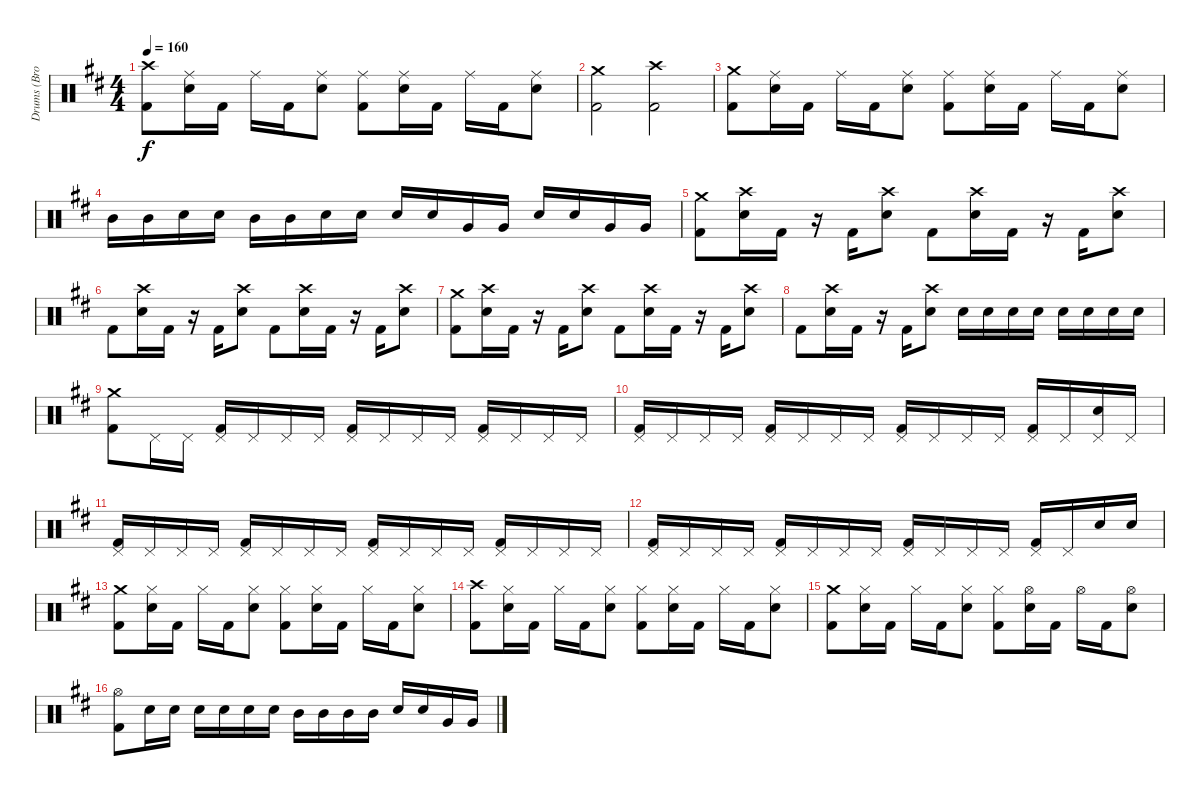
\track ("Drums (Brooks Wackerman)" "Drums (Bro") {instrument percussion}
\staff {score}
\articulation defaults
\ts (4 4)
\tempo 160
\clef neutral
\ks d
("Crash high (hit)" "Kick (hit) 2").8{dy f} ("Ride (middle)" "Snare (hit) 2").16 "Kick (hit) 2".16 "Ride (middle)".16 "Kick (hit) 2".16 ("Ride (middle)" "Snare (hit) 2").8 ("Ride (middle)" "Kick (hit) 2").8 ("Ride (middle)" "Snare (hit) 2").16 "Kick (hit) 2".16 "Ride (middle)".16 "Kick (hit) 2".16 ("Ride (middle)" "Snare (hit) 2").8 |
("Crash medium (hit)" "Kick (hit) 2").2 ("Crash high (hit)" "Kick (hit) 2").2 |
("Crash medium (hit)" "Kick (hit) 2").8 ("Ride (middle)" "Snare (hit) 2").16 "Kick (hit) 2".16 "Ride (middle)".16 "Kick (hit) 2".16 ("Ride (middle)" "Snare (hit) 2").8 ("Ride (middle)" "Kick (hit) 2").8 ("Ride (middle)" "Snare (hit) 2").16 "Kick (hit) 2".16 "Ride (middle)".16 "Kick (hit) 2".16 ("Ride (middle)" "Snare (hit) 2").8 |
"Mid Tom (hit)".16 "Mid Tom (hit)".16 "Snare (hit) 2".16 "Snare (hit) 2".16 "Mid Tom (hit)".16 "Mid Tom (hit)".16 "Snare (hit) 2".16 "Snare (hit) 2".16 "Snare (hit) 2".16 "Snare (hit) 2".16 "Very Low Tom (hit)".16 "Very Low Tom (hit)".16 "Snare (hit) 2".16 "Snare (hit) 2".16 "Very Low Tom (hit)".16 "Very Low Tom (hit)".16 |
("Crash medium (hit)" "Kick (hit) 2").8 ("Crash high (hit)" "Snare (hit) 2").16 "Kick (hit) 2".16 r.16 "Kick (hit) 2".16 ("Crash high (hit)" "Snare (hit) 2").8 "Kick (hit) 2".8 ("Crash high (hit)" "Snare (hit) 2").16 "Kick (hit) 2".16 r.16 "Kick (hit) 2".16 ("Crash high (hit)" "Snare (hit) 2").8 |
"Kick (hit) 2".8 ("Crash high (hit)" "Snare (hit) 2").16 "Kick (hit) 2".16 r.16 "Kick (hit) 2".16 ("Crash high (hit)" "Snare (hit) 2").8 "Kick (hit) 2".8 ("Crash high (hit)" "Snare (hit) 2").16 "Kick (hit) 2".16 r.16 "Kick (hit) 2".16 ("Crash high (hit)" "Snare (hit) 2").8 |
("Crash medium (hit)" "Kick (hit) 2").8 ("Crash high (hit)" "Snare (hit) 2").16 "Kick (hit) 2".16 r.16 "Kick (hit) 2".16 ("Crash high (hit)" "Snare (hit) 2").8 "Kick (hit) 2".8 ("Crash high (hit)" "Snare (hit) 2").16 "Kick (hit) 2".16 r.16 "Kick (hit) 2".16 ("Crash high (hit)" "Snare (hit) 2").8 |
"Kick (hit) 2".8 ("Crash high (hit)" "Snare (hit) 2").16 "Kick (hit) 2".16 r.16 "Kick (hit) 2".16 ("Crash high (hit)" "Snare (hit) 2").8 "Snare (hit) 2".16 "Snare (hit) 2".16 "Snare (hit) 2".16 "Snare (hit) 2".16 "Snare (hit) 2".16 "Snare (hit) 2".16 "Snare (hit) 2".16 "Snare (hit) 2".16 |
("Crash medium (hit)" "Kick (hit) 2").8 "Pedal Hi-Hat (hit)".16 "Pedal Hi-Hat (hit)".16 ("Pedal Hi-Hat (hit)" "Kick (hit) 2").16 "Pedal Hi-Hat (hit)".16 "Pedal Hi-Hat (hit)".16 "Pedal Hi-Hat (hit)".16 ("Pedal Hi-Hat (hit)" "Kick (hit) 2").16 "Pedal Hi-Hat (hit)".16 "Pedal Hi-Hat (hit)".16 "Pedal Hi-Hat (hit)".16 ("Pedal Hi-Hat (hit)" "Kick (hit) 2").16 "Pedal Hi-Hat (hit)".16 "Pedal Hi-Hat (hit)".16 "Pedal Hi-Hat (hit)".16 |
("Pedal Hi-Hat (hit)" "Kick (hit) 2").16 "Pedal Hi-Hat (hit)".16 "Pedal Hi-Hat (hit)".16 "Pedal Hi-Hat (hit)".16 ("Pedal Hi-Hat (hit)" "Kick (hit) 2").16 "Pedal Hi-Hat (hit)".16 "Pedal Hi-Hat (hit)".16 "Pedal Hi-Hat (hit)".16 ("Pedal Hi-Hat (hit)" "Kick (hit) 2").16 "Pedal Hi-Hat (hit)".16 "Pedal Hi-Hat (hit)".16 "Pedal Hi-Hat (hit)".16 ("Pedal Hi-Hat (hit)" "Kick (hit) 2").16 "Pedal Hi-Hat (hit)".16 ("Pedal Hi-Hat (hit)" "Snare (hit) 2").16 "Pedal Hi-Hat (hit)".16 |
("Pedal Hi-Hat (hit)" "Kick (hit) 2").16 "Pedal Hi-Hat (hit)".16 "Pedal Hi-Hat (hit)".16 "Pedal Hi-Hat (hit)".16 ("Pedal Hi-Hat (hit)" "Kick (hit) 2").16 "Pedal Hi-Hat (hit)".16 "Pedal Hi-Hat (hit)".16 "Pedal Hi-Hat (hit)".16 ("Pedal Hi-Hat (hit)" "Kick (hit) 2").16 "Pedal Hi-Hat (hit)".16 "Pedal Hi-Hat (hit)".16 "Pedal Hi-Hat (hit)".16 ("Pedal Hi-Hat (hit)" "Kick (hit) 2").16 "Pedal Hi-Hat (hit)".16 "Pedal Hi-Hat (hit)".16 "Pedal Hi-Hat (hit)".16 |
("Pedal Hi-Hat (hit)" "Kick (hit) 2").16 "Pedal Hi-Hat (hit)".16 "Pedal Hi-Hat (hit)".16 "Pedal Hi-Hat (hit)".16 ("Pedal Hi-Hat (hit)" "Kick (hit) 2").16 "Pedal Hi-Hat (hit)".16 "Pedal Hi-Hat (hit)".16 "Pedal Hi-Hat (hit)".16 ("Pedal Hi-Hat (hit)" "Kick (hit) 2").16 "Pedal Hi-Hat (hit)".16 "Pedal Hi-Hat (hit)".16 "Pedal Hi-Hat (hit)".16 ("Pedal Hi-Hat (hit)" "Kick (hit) 2").16 "Pedal Hi-Hat (hit)".16 "Snare (hit) 2".16 "Snare (hit) 2".16 |
("Crash medium (hit)" "Kick (hit) 2").8 ("Hi-Hat (closed)" "Snare (hit) 2").16 "Kick (hit) 2".16 "Hi-Hat (closed)".16 "Kick (hit) 2".16 ("Hi-Hat (closed)" "Snare (hit) 2").8 ("Hi-Hat (closed)" "Kick (hit) 2").8 ("Hi-Hat (closed)" "Snare (hit) 2").16 "Kick (hit) 2".16 "Hi-Hat (closed)".16 "Kick (hit) 2".16 ("Hi-Hat (closed)" "Snare (hit) 2").8 |
("Crash high (hit)" "Kick (hit) 2").8 ("Hi-Hat (closed)" "Snare (hit) 2").16 "Kick (hit) 2".16 "Hi-Hat (closed)".16 "Kick (hit) 2".16 ("Hi-Hat (closed)" "Snare (hit) 2").8 ("Hi-Hat (closed)" "Kick (hit) 2").8 ("Hi-Hat (closed)" "Snare (hit) 2").16 "Kick (hit) 2".16 "Hi-Hat (closed)".16 "Kick (hit) 2".16 ("Hi-Hat (closed)" "Snare (hit) 2").8 |
("Crash medium (hit)" "Kick (hit) 2").8 ("Hi-Hat (closed)" "Snare (hit) 2").16 "Kick (hit) 2".16 "Hi-Hat (closed)".16 "Kick (hit) 2".16 ("Hi-Hat (closed)" "Snare (hit) 2").8 ("Hi-Hat (closed)" "Kick (hit) 2").8 ("Hi-Hat (open)" "Snare (hit) 2").16 "Kick (hit) 2".16 "Hi-Hat (open)".16 "Kick (hit) 2".16 ("Hi-Hat (open)" "Snare (hit) 2").8 |
("Hi-Hat (open)" "Kick (hit) 2").8 "Snare (hit) 2".16 "Snare (hit) 2".16 "Snare (hit) 2".16 "Snare (hit) 2".16 "Snare (hit) 2".16 "Snare (hit) 2".16 "Mid Tom (hit)".16 "Mid Tom (hit)".16 "Mid Tom (hit)".16 "Mid Tom (hit)".16 "Snare (hit) 2".16 "Snare (hit) 2".16 "Very Low Tom (hit)".16 "Very Low Tom (hit)".16
